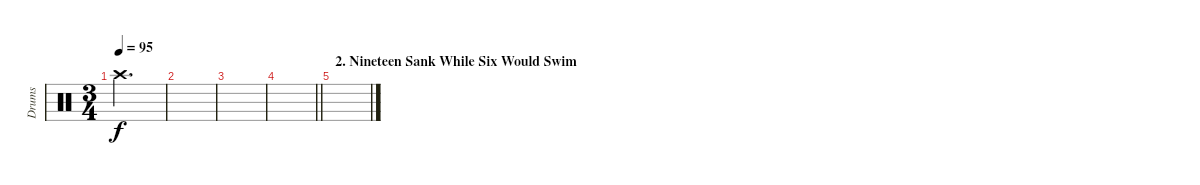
\track ("Drums" "Drums") {instrument percussion}
\staff {score}
\articulation defaults
\ts (3 4)
\tempo 95
\clef neutral
\ks c "Crash high (hit)".2{d dy f}
|
|
|
\barLineRight lightlight
|
\section ("" "2. Nineteen Sank While Six Would Swim")
